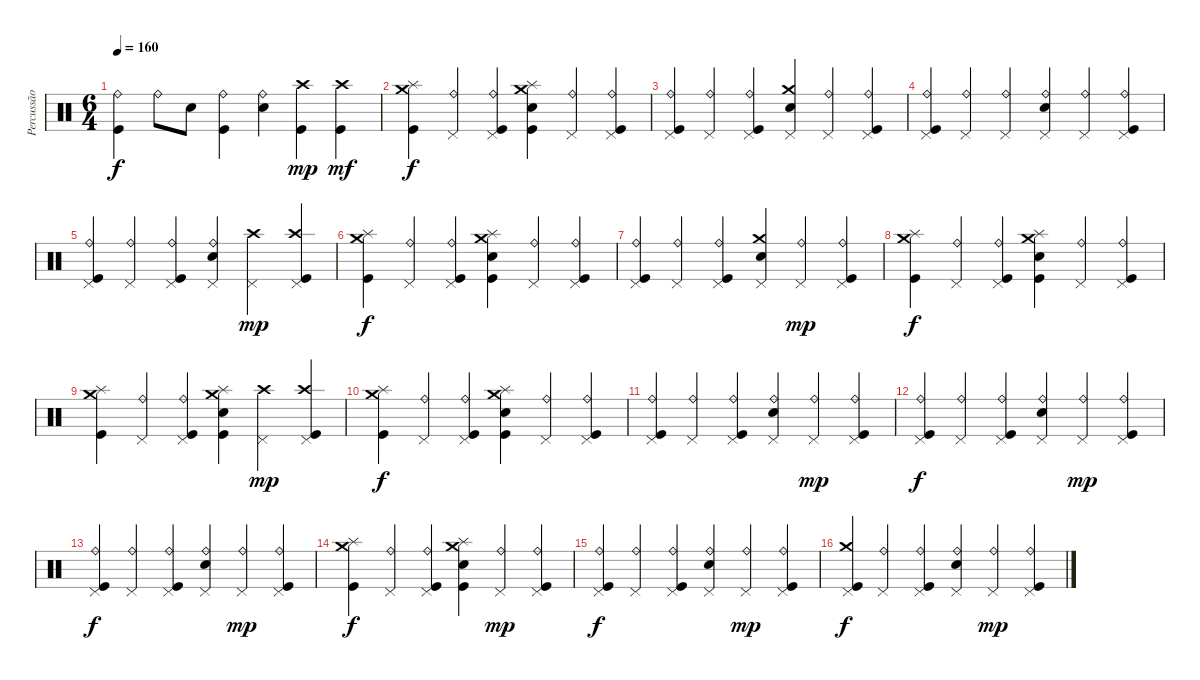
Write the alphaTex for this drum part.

\track ("Percussão" "Percussão") {instrument percussion}
\staff {score}
\articulation defaults
\ts (6 4)
\tempo 160
\clef neutral
\ks c
("Ride (bell)" "Kick (hit)").4{dy f} "Ride (bell)".8 "Snare (hit) 2".8 ("Ride (bell)" "Kick (hit)").4 ("Ride (bell)" "Snare (hit) 2").4 ("Crash high (hit)" "Kick (hit)").4{dy mp} ("Crash high (hit)" "Kick (hit)").4{dy mf} |
("Crash medium (hit)" "Splash (hit)" "Kick (hit)").4{dy f} ("Ride (bell)" "Pedal Hi-Hat (hit)").4 ("Ride (bell)" "Pedal Hi-Hat (hit)" "Kick (hit)").4 ("Crash medium (hit)" "Splash (hit)" "Snare (hit) 2" "Kick (hit)").4 ("Ride (bell)" "Pedal Hi-Hat (hit)").4 ("Ride (bell)" "Pedal Hi-Hat (hit)" "Kick (hit)").4 |
("Ride (bell)" "Pedal Hi-Hat (hit)" "Kick (hit)").4 ("Ride (bell)" "Pedal Hi-Hat (hit)").4 ("Ride (bell)" "Pedal Hi-Hat (hit)" "Kick (hit)").4 ("Crash medium (hit)" "Pedal Hi-Hat (hit)" "Snare (hit) 2").4 ("Ride (bell)" "Pedal Hi-Hat (hit)").4 ("Ride (bell)" "Pedal Hi-Hat (hit)" "Kick (hit)").4 |
("Ride (bell)" "Pedal Hi-Hat (hit)" "Kick (hit)").4 ("Ride (bell)" "Pedal Hi-Hat (hit)").4 ("Ride (bell)" "Pedal Hi-Hat (hit)").4 ("Ride (bell)" "Pedal Hi-Hat (hit)" "Snare (hit) 2").4 ("Ride (bell)" "Pedal Hi-Hat (hit)").4 ("Ride (bell)" "Pedal Hi-Hat (hit)" "Kick (hit)").4 |
("Ride (bell)" "Pedal Hi-Hat (hit)" "Kick (hit)").4 ("Ride (bell)" "Pedal Hi-Hat (hit)").4 ("Ride (bell)" "Pedal Hi-Hat (hit)" "Kick (hit)").4 ("Ride (bell)" "Pedal Hi-Hat (hit)" "Snare (hit) 2").4 ("Crash high (hit)" "Pedal Hi-Hat (hit)").4{dy mp} ("Crash high (hit)" "Pedal Hi-Hat (hit)" "Kick (hit)").4 |
("Crash medium (hit)" "Splash (hit)" "Kick (hit)").4{dy f} ("Ride (bell)" "Pedal Hi-Hat (hit)").4 ("Ride (bell)" "Pedal Hi-Hat (hit)" "Kick (hit)").4 ("Crash medium (hit)" "Splash (hit)" "Snare (hit) 2" "Kick (hit)").4 ("Ride (bell)" "Pedal Hi-Hat (hit)").4 ("Ride (bell)" "Pedal Hi-Hat (hit)" "Kick (hit)").4 |
("Ride (bell)" "Pedal Hi-Hat (hit)" "Kick (hit)").4 ("Ride (bell)" "Pedal Hi-Hat (hit)").4 ("Ride (bell)" "Pedal Hi-Hat (hit)" "Kick (hit)").4 ("Crash medium (hit)" "Pedal Hi-Hat (hit)" "Snare (hit) 2").4 ("Ride (bell)" "Pedal Hi-Hat (hit)").4{dy mp} ("Ride (bell)" "Pedal Hi-Hat (hit)" "Kick (hit)").4 |
("Crash medium (hit)" "Splash (hit)" "Kick (hit)").4{dy f} ("Ride (bell)" "Pedal Hi-Hat (hit)").4 ("Ride (bell)" "Pedal Hi-Hat (hit)" "Kick (hit)").4 ("Crash medium (hit)" "Splash (hit)" "Snare (hit) 2" "Kick (hit)").4 ("Ride (bell)" "Pedal Hi-Hat (hit)").4 ("Ride (bell)" "Pedal Hi-Hat (hit)" "Kick (hit)").4 |
("Crash medium (hit)" "Splash (hit)" "Kick (hit)").4 ("Ride (bell)" "Pedal Hi-Hat (hit)").4 ("Ride (bell)" "Pedal Hi-Hat (hit)" "Kick (hit)").4 ("Crash medium (hit)" "Splash (hit)" "Snare (hit) 2" "Kick (hit)").4 ("Crash high (hit)" "Pedal Hi-Hat (hit)").4{dy mp} ("Crash high (hit)" "Pedal Hi-Hat (hit)" "Kick (hit)").4 |
("Crash medium (hit)" "Splash (hit)" "Kick (hit)").4{dy f} ("Ride (bell)" "Pedal Hi-Hat (hit)").4 ("Ride (bell)" "Pedal Hi-Hat (hit)" "Kick (hit)").4 ("Crash medium (hit)" "Splash (hit)" "Snare (hit) 2" "Kick (hit)").4 ("Ride (bell)" "Pedal Hi-Hat (hit)").4 ("Ride (bell)" "Pedal Hi-Hat (hit)" "Kick (hit)").4 |
("Ride (bell)" "Pedal Hi-Hat (hit)" "Kick (hit)").4 ("Ride (bell)" "Pedal Hi-Hat (hit)").4 ("Ride (bell)" "Pedal Hi-Hat (hit)" "Kick (hit)").4 ("Ride (bell)" "Pedal Hi-Hat (hit)" "Snare (hit) 2").4 ("Ride (bell)" "Pedal Hi-Hat (hit)").4{dy mp} ("Ride (bell)" "Pedal Hi-Hat (hit)" "Kick (hit)").4 |
("Ride (bell)" "Pedal Hi-Hat (hit)" "Kick (hit)").4{dy f} ("Ride (bell)" "Pedal Hi-Hat (hit)").4 ("Ride (bell)" "Pedal Hi-Hat (hit)" "Kick (hit)").4 ("Ride (bell)" "Pedal Hi-Hat (hit)" "Snare (hit) 2").4 ("Ride (bell)" "Pedal Hi-Hat (hit)").4{dy mp} ("Ride (bell)" "Pedal Hi-Hat (hit)" "Kick (hit)").4 |
("Ride (bell)" "Pedal Hi-Hat (hit)" "Kick (hit)").4{dy f} ("Ride (bell)" "Pedal Hi-Hat (hit)").4 ("Ride (bell)" "Pedal Hi-Hat (hit)" "Kick (hit)").4 ("Ride (bell)" "Pedal Hi-Hat (hit)" "Snare (hit) 2").4 ("Ride (bell)" "Pedal Hi-Hat (hit)").4{dy mp} ("Ride (bell)" "Pedal Hi-Hat (hit)" "Kick (hit)").4 |
("Crash medium (hit)" "Splash (hit)" "Kick (hit)").4{dy f} ("Ride (bell)" "Pedal Hi-Hat (hit)").4 ("Ride (bell)" "Pedal Hi-Hat (hit)" "Kick (hit)").4 ("Crash medium (hit)" "Splash (hit)" "Snare (hit) 2" "Kick (hit)").4 ("Ride (bell)" "Pedal Hi-Hat (hit)").4{dy mp} ("Ride (bell)" "Pedal Hi-Hat (hit)" "Kick (hit)").4 |
("Ride (bell)" "Pedal Hi-Hat (hit)" "Kick (hit)").4{dy f} ("Ride (bell)" "Pedal Hi-Hat (hit)").4 ("Ride (bell)" "Pedal Hi-Hat (hit)" "Kick (hit)").4 ("Ride (bell)" "Pedal Hi-Hat (hit)" "Snare (hit) 2").4 ("Ride (bell)" "Pedal Hi-Hat (hit)").4{dy mp} ("Ride (bell)" "Pedal Hi-Hat (hit)" "Kick (hit)").4 |
("Crash medium (hit)" "Pedal Hi-Hat (hit)" "Kick (hit)").4{dy f} ("Ride (bell)" "Pedal Hi-Hat (hit)").4 ("Ride (bell)" "Pedal Hi-Hat (hit)" "Kick (hit)").4 ("Ride (bell)" "Pedal Hi-Hat (hit)" "Snare (hit) 2").4 ("Ride (bell)" "Pedal Hi-Hat (hit)").4{dy mp} ("Ride (bell)" "Pedal Hi-Hat (hit)" "Kick (hit)").4
